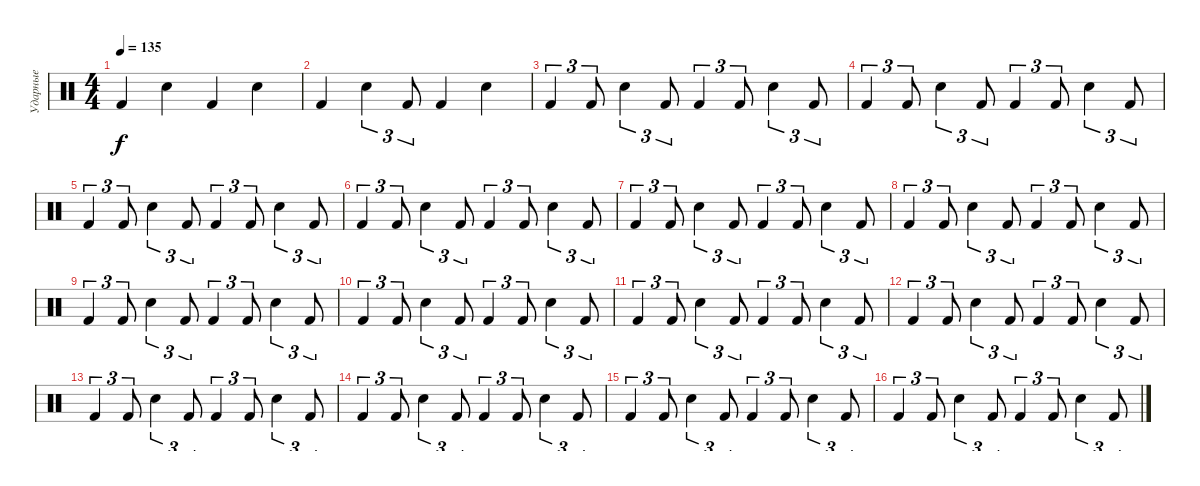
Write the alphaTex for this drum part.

\track ("Ударные" "Ударные") {instrument percussion}
\staff {score}
\articulation defaults
\ts (4 4)
\tempo 135
\clef neutral
\ks c "Kick (hit) 2".4{dy f} "Electric Snare (hit)".4 "Kick (hit) 2".4 "Electric Snare (hit)".4
|
"Kick (hit) 2".4 "Electric Snare (hit)".4{tu (3 2)} "Kick (hit) 2".8{tu (3 2)} "Kick (hit) 2".4 "Electric Snare (hit)".4 |
"Kick (hit) 2".4{tu (3 2)} "Kick (hit) 2".8{tu (3 2)} "Electric Snare (hit)".4{tu (3 2)} "Kick (hit) 2".8{tu (3 2)} "Kick (hit) 2".4{tu (3 2)} "Kick (hit) 2".8{tu (3 2)} "Electric Snare (hit)".4{tu (3 2)} "Kick (hit) 2".8{tu (3 2)} |
"Kick (hit) 2".4{tu (3 2)} "Kick (hit) 2".8{tu (3 2)} "Electric Snare (hit)".4{tu (3 2)} "Kick (hit) 2".8{tu (3 2)} "Kick (hit) 2".4{tu (3 2)} "Kick (hit) 2".8{tu (3 2)} "Electric Snare (hit)".4{tu (3 2)} "Kick (hit) 2".8{tu (3 2)} |
"Kick (hit) 2".4{tu (3 2)} "Kick (hit) 2".8{tu (3 2)} "Electric Snare (hit)".4{tu (3 2)} "Kick (hit) 2".8{tu (3 2)} "Kick (hit) 2".4{tu (3 2)} "Kick (hit) 2".8{tu (3 2)} "Electric Snare (hit)".4{tu (3 2)} "Kick (hit) 2".8{tu (3 2)} |
"Kick (hit) 2".4{tu (3 2)} "Kick (hit) 2".8{tu (3 2)} "Electric Snare (hit)".4{tu (3 2)} "Kick (hit) 2".8{tu (3 2)} "Kick (hit) 2".4{tu (3 2)} "Kick (hit) 2".8{tu (3 2)} "Electric Snare (hit)".4{tu (3 2)} "Kick (hit) 2".8{tu (3 2)} |
"Kick (hit) 2".4{tu (3 2)} "Kick (hit) 2".8{tu (3 2)} "Electric Snare (hit)".4{tu (3 2)} "Kick (hit) 2".8{tu (3 2)} "Kick (hit) 2".4{tu (3 2)} "Kick (hit) 2".8{tu (3 2)} "Electric Snare (hit)".4{tu (3 2)} "Kick (hit) 2".8{tu (3 2)} |
"Kick (hit) 2".4{tu (3 2)} "Kick (hit) 2".8{tu (3 2)} "Electric Snare (hit)".4{tu (3 2)} "Kick (hit) 2".8{tu (3 2)} "Kick (hit) 2".4{tu (3 2)} "Kick (hit) 2".8{tu (3 2)} "Electric Snare (hit)".4{tu (3 2)} "Kick (hit) 2".8{tu (3 2)} |
"Kick (hit) 2".4{tu (3 2)} "Kick (hit) 2".8{tu (3 2)} "Electric Snare (hit)".4{tu (3 2)} "Kick (hit) 2".8{tu (3 2)} "Kick (hit) 2".4{tu (3 2)} "Kick (hit) 2".8{tu (3 2)} "Electric Snare (hit)".4{tu (3 2)} "Kick (hit) 2".8{tu (3 2)} |
"Kick (hit) 2".4{tu (3 2)} "Kick (hit) 2".8{tu (3 2)} "Electric Snare (hit)".4{tu (3 2)} "Kick (hit) 2".8{tu (3 2)} "Kick (hit) 2".4{tu (3 2)} "Kick (hit) 2".8{tu (3 2)} "Electric Snare (hit)".4{tu (3 2)} "Kick (hit) 2".8{tu (3 2)} |
"Kick (hit) 2".4{tu (3 2)} "Kick (hit) 2".8{tu (3 2)} "Electric Snare (hit)".4{tu (3 2)} "Kick (hit) 2".8{tu (3 2)} "Kick (hit) 2".4{tu (3 2)} "Kick (hit) 2".8{tu (3 2)} "Electric Snare (hit)".4{tu (3 2)} "Kick (hit) 2".8{tu (3 2)} |
"Kick (hit) 2".4{tu (3 2)} "Kick (hit) 2".8{tu (3 2)} "Electric Snare (hit)".4{tu (3 2)} "Kick (hit) 2".8{tu (3 2)} "Kick (hit) 2".4{tu (3 2)} "Kick (hit) 2".8{tu (3 2)} "Electric Snare (hit)".4{tu (3 2)} "Kick (hit) 2".8{tu (3 2)} |
"Kick (hit) 2".4{tu (3 2)} "Kick (hit) 2".8{tu (3 2)} "Electric Snare (hit)".4{tu (3 2)} "Kick (hit) 2".8{tu (3 2)} "Kick (hit) 2".4{tu (3 2)} "Kick (hit) 2".8{tu (3 2)} "Electric Snare (hit)".4{tu (3 2)} "Kick (hit) 2".8{tu (3 2)} |
"Kick (hit) 2".4{tu (3 2)} "Kick (hit) 2".8{tu (3 2)} "Electric Snare (hit)".4{tu (3 2)} "Kick (hit) 2".8{tu (3 2)} "Kick (hit) 2".4{tu (3 2)} "Kick (hit) 2".8{tu (3 2)} "Electric Snare (hit)".4{tu (3 2)} "Kick (hit) 2".8{tu (3 2)} |
"Kick (hit) 2".4{tu (3 2)} "Kick (hit) 2".8{tu (3 2)} "Electric Snare (hit)".4{tu (3 2)} "Kick (hit) 2".8{tu (3 2)} "Kick (hit) 2".4{tu (3 2)} "Kick (hit) 2".8{tu (3 2)} "Electric Snare (hit)".4{tu (3 2)} "Kick (hit) 2".8{tu (3 2)} |
"Kick (hit) 2".4{tu (3 2)} "Kick (hit) 2".8{tu (3 2)} "Electric Snare (hit)".4{tu (3 2)} "Kick (hit) 2".8{tu (3 2)} "Kick (hit) 2".4{tu (3 2)} "Kick (hit) 2".8{tu (3 2)} "Electric Snare (hit)".4{tu (3 2)} "Kick (hit) 2".8{tu (3 2)}
